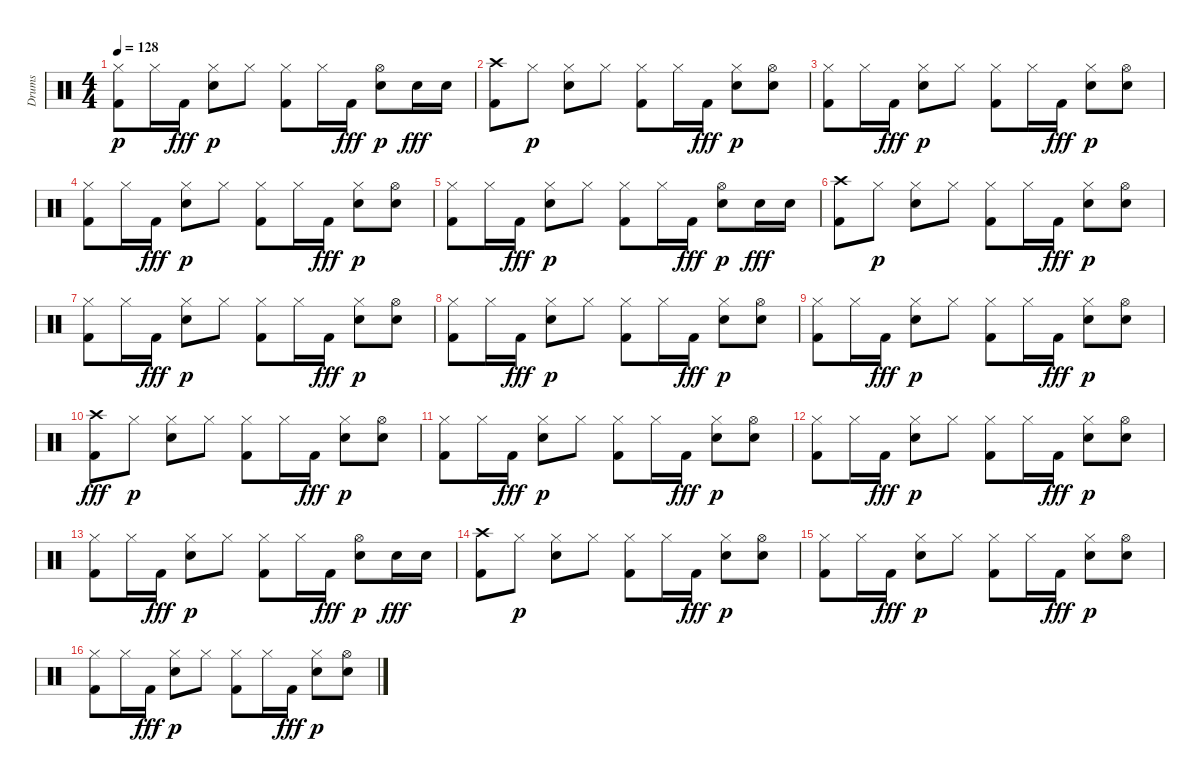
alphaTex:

\track ("Drums" "Drums") {instrument percussion}
\staff {score}
\articulation defaults
\ts (4 4)
\tempo 128
\clef neutral
\ks c
("Kick (hit) 2" "Hi-Hat (closed)").8{dy p} "Hi-Hat (closed)".16 "Kick (hit) 2".16{dy fff} ("Electric Snare (hit)" "Hi-Hat (closed)").8{dy p} "Hi-Hat (closed)".8 ("Kick (hit) 2" "Hi-Hat (closed)").8 "Hi-Hat (closed)".16 "Kick (hit) 2".16{dy fff} ("Electric Snare (hit)" "Hi-Hat (open)").8{dy p} "Electric Snare (hit)".16{dy fff} "Electric Snare (hit)".16 |
("Kick (hit) 2" "Crash high (hit)").8 "Hi-Hat (closed)".8{dy p} ("Electric Snare (hit)" "Hi-Hat (closed)").8 "Hi-Hat (closed)".8 ("Kick (hit) 2" "Hi-Hat (closed)").8 "Hi-Hat (closed)".16 "Kick (hit) 2".16{dy fff} ("Electric Snare (hit)" "Hi-Hat (closed)").8{dy p} ("Electric Snare (hit)" "Hi-Hat (open)").8 |
("Kick (hit) 2" "Hi-Hat (closed)").8 "Hi-Hat (closed)".16 "Kick (hit) 2".16{dy fff} ("Electric Snare (hit)" "Hi-Hat (closed)").8{dy p} "Hi-Hat (closed)".8 ("Kick (hit) 2" "Hi-Hat (closed)").8 "Hi-Hat (closed)".16 "Kick (hit) 2".16{dy fff} ("Electric Snare (hit)" "Hi-Hat (closed)").8{dy p} ("Electric Snare (hit)" "Hi-Hat (open)").8 |
("Kick (hit) 2" "Hi-Hat (closed)").8 "Hi-Hat (closed)".16 "Kick (hit) 2".16{dy fff} ("Electric Snare (hit)" "Hi-Hat (closed)").8{dy p} "Hi-Hat (closed)".8 ("Kick (hit) 2" "Hi-Hat (closed)").8 "Hi-Hat (closed)".16 "Kick (hit) 2".16{dy fff} ("Electric Snare (hit)" "Hi-Hat (closed)").8{dy p} ("Electric Snare (hit)" "Hi-Hat (open)").8 |
("Kick (hit) 2" "Hi-Hat (closed)").8 "Hi-Hat (closed)".16 "Kick (hit) 2".16{dy fff} ("Electric Snare (hit)" "Hi-Hat (closed)").8{dy p} "Hi-Hat (closed)".8 ("Kick (hit) 2" "Hi-Hat (closed)").8 "Hi-Hat (closed)".16 "Kick (hit) 2".16{dy fff} ("Electric Snare (hit)" "Hi-Hat (open)").8{dy p} "Electric Snare (hit)".16{dy fff} "Electric Snare (hit)".16 |
("Kick (hit) 2" "Crash high (hit)").8 "Hi-Hat (closed)".8{dy p} ("Electric Snare (hit)" "Hi-Hat (closed)").8 "Hi-Hat (closed)".8 ("Kick (hit) 2" "Hi-Hat (closed)").8 "Hi-Hat (closed)".16 "Kick (hit) 2".16{dy fff} ("Electric Snare (hit)" "Hi-Hat (closed)").8{dy p} ("Electric Snare (hit)" "Hi-Hat (open)").8 |
("Kick (hit) 2" "Hi-Hat (closed)").8 "Hi-Hat (closed)".16 "Kick (hit) 2".16{dy fff} ("Electric Snare (hit)" "Hi-Hat (closed)").8{dy p} "Hi-Hat (closed)".8 ("Kick (hit) 2" "Hi-Hat (closed)").8 "Hi-Hat (closed)".16 "Kick (hit) 2".16{dy fff} ("Electric Snare (hit)" "Hi-Hat (closed)").8{dy p} ("Electric Snare (hit)" "Hi-Hat (open)").8 |
("Kick (hit) 2" "Hi-Hat (closed)").8 "Hi-Hat (closed)".16 "Kick (hit) 2".16{dy fff} ("Electric Snare (hit)" "Hi-Hat (closed)").8{dy p} "Hi-Hat (closed)".8 ("Kick (hit) 2" "Hi-Hat (closed)").8 "Hi-Hat (closed)".16 "Kick (hit) 2".16{dy fff} ("Electric Snare (hit)" "Hi-Hat (closed)").8{dy p} ("Electric Snare (hit)" "Hi-Hat (open)").8 |
("Kick (hit) 2" "Hi-Hat (closed)").8 "Hi-Hat (closed)".16 "Kick (hit) 2".16{dy fff} ("Electric Snare (hit)" "Hi-Hat (closed)").8{dy p} "Hi-Hat (closed)".8 ("Kick (hit) 2" "Hi-Hat (closed)").8 "Hi-Hat (closed)".16 "Kick (hit) 2".16{dy fff} ("Electric Snare (hit)" "Hi-Hat (closed)").8{dy p} ("Electric Snare (hit)" "Hi-Hat (open)").8 |
("Kick (hit) 2" "Crash high (hit)").8{dy fff} "Hi-Hat (closed)".8{dy p} ("Electric Snare (hit)" "Hi-Hat (closed)").8 "Hi-Hat (closed)".8 ("Kick (hit) 2" "Hi-Hat (closed)").8 "Hi-Hat (closed)".16 "Kick (hit) 2".16{dy fff} ("Electric Snare (hit)" "Hi-Hat (closed)").8{dy p} ("Electric Snare (hit)" "Hi-Hat (open)").8 |
("Kick (hit) 2" "Hi-Hat (closed)").8 "Hi-Hat (closed)".16 "Kick (hit) 2".16{dy fff} ("Electric Snare (hit)" "Hi-Hat (closed)").8{dy p} "Hi-Hat (closed)".8 ("Kick (hit) 2" "Hi-Hat (closed)").8 "Hi-Hat (closed)".16 "Kick (hit) 2".16{dy fff} ("Electric Snare (hit)" "Hi-Hat (closed)").8{dy p} ("Electric Snare (hit)" "Hi-Hat (open)").8 |
("Kick (hit) 2" "Hi-Hat (closed)").8 "Hi-Hat (closed)".16 "Kick (hit) 2".16{dy fff} ("Electric Snare (hit)" "Hi-Hat (closed)").8{dy p} "Hi-Hat (closed)".8 ("Kick (hit) 2" "Hi-Hat (closed)").8 "Hi-Hat (closed)".16 "Kick (hit) 2".16{dy fff} ("Electric Snare (hit)" "Hi-Hat (closed)").8{dy p} ("Electric Snare (hit)" "Hi-Hat (open)").8 |
("Kick (hit) 2" "Hi-Hat (closed)").8 "Hi-Hat (closed)".16 "Kick (hit) 2".16{dy fff} ("Electric Snare (hit)" "Hi-Hat (closed)").8{dy p} "Hi-Hat (closed)".8 ("Kick (hit) 2" "Hi-Hat (closed)").8 "Hi-Hat (closed)".16 "Kick (hit) 2".16{dy fff} ("Electric Snare (hit)" "Hi-Hat (open)").8{dy p} "Electric Snare (hit)".16{dy fff} "Electric Snare (hit)".16 |
("Kick (hit) 2" "Crash high (hit)").8 "Hi-Hat (closed)".8{dy p} ("Electric Snare (hit)" "Hi-Hat (closed)").8 "Hi-Hat (closed)".8 ("Kick (hit) 2" "Hi-Hat (closed)").8 "Hi-Hat (closed)".16 "Kick (hit) 2".16{dy fff} ("Electric Snare (hit)" "Hi-Hat (closed)").8{dy p} ("Electric Snare (hit)" "Hi-Hat (open)").8 |
("Kick (hit) 2" "Hi-Hat (closed)").8 "Hi-Hat (closed)".16 "Kick (hit) 2".16{dy fff} ("Electric Snare (hit)" "Hi-Hat (closed)").8{dy p} "Hi-Hat (closed)".8 ("Kick (hit) 2" "Hi-Hat (closed)").8 "Hi-Hat (closed)".16 "Kick (hit) 2".16{dy fff} ("Electric Snare (hit)" "Hi-Hat (closed)").8{dy p} ("Electric Snare (hit)" "Hi-Hat (open)").8 |
("Kick (hit) 2" "Hi-Hat (closed)").8 "Hi-Hat (closed)".16 "Kick (hit) 2".16{dy fff} ("Electric Snare (hit)" "Hi-Hat (closed)").8{dy p} "Hi-Hat (closed)".8 ("Kick (hit) 2" "Hi-Hat (closed)").8 "Hi-Hat (closed)".16 "Kick (hit) 2".16{dy fff} ("Electric Snare (hit)" "Hi-Hat (closed)").8{dy p} ("Electric Snare (hit)" "Hi-Hat (open)").8
